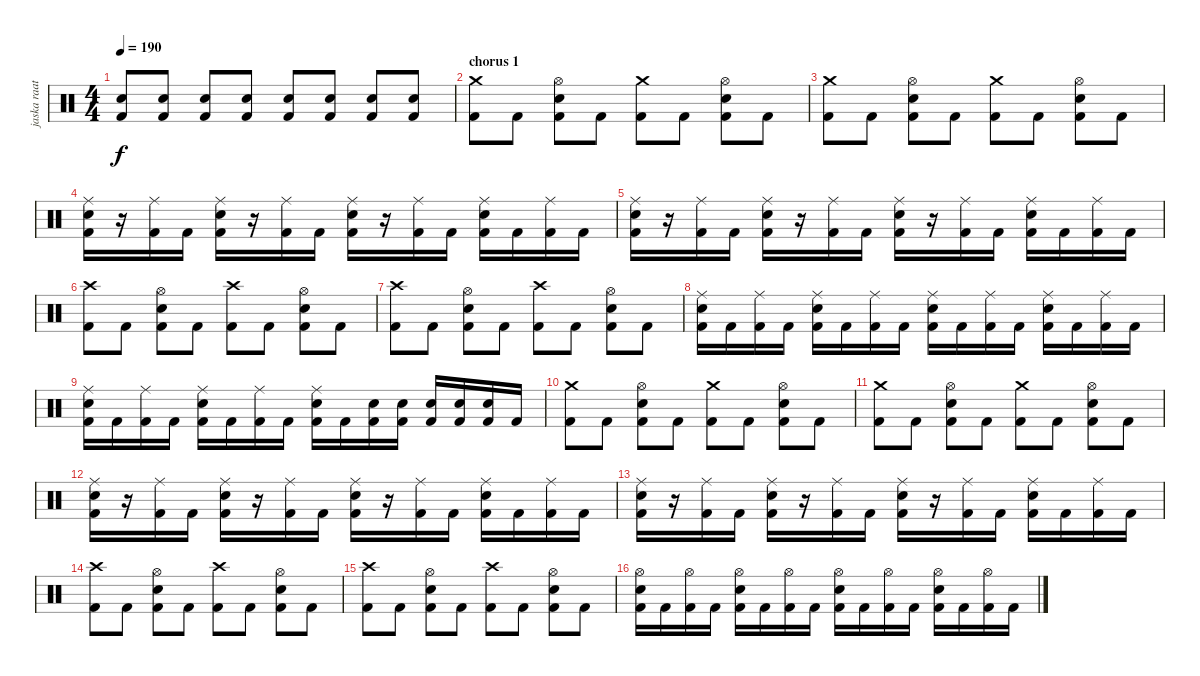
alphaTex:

\track ("jaska raatikainen" "jaska raat") {instrument percussion}
\staff {score}
\articulation defaults
\ts (4 4)
\tempo 190
\clef neutral
\ks c
("Snare (hit) 2" "Kick (hit) 2").8{dy f} ("Snare (hit) 2" "Kick (hit) 2").8 ("Snare (hit) 2" "Kick (hit) 2").8 ("Snare (hit) 2" "Kick (hit) 2").8 ("Snare (hit) 2" "Kick (hit) 2").8 ("Snare (hit) 2" "Kick (hit) 2").8 ("Snare (hit) 2" "Kick (hit) 2").8 ("Snare (hit) 2" "Kick (hit) 2").8 |
\section ("" "chorus 1")
("Crash medium (hit)" "Kick (hit) 2").8 "Kick (hit) 2".8 ("Hi-Hat (open)" "Snare (hit) 2" "Kick (hit) 2").8 "Kick (hit) 2".8 ("Crash medium (hit)" "Kick (hit) 2").8 "Kick (hit) 2".8 ("Hi-Hat (open)" "Snare (hit) 2" "Kick (hit) 2").8 "Kick (hit) 2".8 |
("Crash medium (hit)" "Kick (hit) 2").8 "Kick (hit) 2".8 ("Hi-Hat (open)" "Snare (hit) 2" "Kick (hit) 2").8 "Kick (hit) 2".8 ("Crash medium (hit)" "Kick (hit) 2").8 "Kick (hit) 2".8 ("Hi-Hat (open)" "Snare (hit) 2" "Kick (hit) 2").8 "Kick (hit) 2".8 |
("Ride (middle)" "Snare (hit) 2" "Kick (hit) 2").16 r.16 ("Ride (middle)" "Kick (hit) 2").16 "Kick (hit) 2".16 ("Ride (middle)" "Snare (hit) 2" "Kick (hit) 2").16 r.16 ("Ride (middle)" "Kick (hit) 2").16 "Kick (hit) 2".16 ("Ride (middle)" "Snare (hit) 2" "Kick (hit) 2").16 r.16 ("Ride (middle)" "Kick (hit) 2").16 "Kick (hit) 2".16 ("Ride (middle)" "Snare (hit) 2" "Kick (hit) 2").16 "Kick (hit) 2".16 ("Ride (middle)" "Kick (hit) 2").16 "Kick (hit) 2".16 |
("Ride (middle)" "Snare (hit) 2" "Kick (hit) 2").16 r.16 ("Ride (middle)" "Kick (hit) 2").16 "Kick (hit) 2".16 ("Ride (middle)" "Snare (hit) 2" "Kick (hit) 2").16 r.16 ("Ride (middle)" "Kick (hit) 2").16 "Kick (hit) 2".16 ("Ride (middle)" "Snare (hit) 2" "Kick (hit) 2").16 r.16 ("Ride (middle)" "Kick (hit) 2").16 "Kick (hit) 2".16 ("Ride (middle)" "Snare (hit) 2" "Kick (hit) 2").16 "Kick (hit) 2".16 ("Ride (middle)" "Kick (hit) 2").16 "Kick (hit) 2".16 |
("Crash high (hit)" "Kick (hit) 2").8 "Kick (hit) 2".8 ("Hi-Hat (open)" "Snare (hit) 2" "Kick (hit) 2").8 "Kick (hit) 2".8 ("Crash high (hit)" "Kick (hit) 2").8 "Kick (hit) 2".8 ("Hi-Hat (open)" "Snare (hit) 2" "Kick (hit) 2").8 "Kick (hit) 2".8 |
("Crash high (hit)" "Kick (hit) 2").8 "Kick (hit) 2".8 ("Hi-Hat (open)" "Snare (hit) 2" "Kick (hit) 2").8 "Kick (hit) 2".8 ("Crash high (hit)" "Kick (hit) 2").8 "Kick (hit) 2".8 ("Hi-Hat (open)" "Snare (hit) 2" "Kick (hit) 2").8 "Kick (hit) 2".8 |
("Ride (middle)" "Snare (hit) 2" "Kick (hit) 2").16 "Kick (hit) 2".16 ("Ride (middle)" "Kick (hit) 2").16 "Kick (hit) 2".16 ("Ride (middle)" "Snare (hit) 2" "Kick (hit) 2").16 "Kick (hit) 2".16 ("Ride (middle)" "Kick (hit) 2").16 "Kick (hit) 2".16 ("Ride (middle)" "Snare (hit) 2" "Kick (hit) 2").16 "Kick (hit) 2".16 ("Ride (middle)" "Kick (hit) 2").16 "Kick (hit) 2".16 ("Ride (middle)" "Snare (hit) 2" "Kick (hit) 2").16 "Kick (hit) 2".16 ("Ride (middle)" "Kick (hit) 2").16 "Kick (hit) 2".16 |
("Ride (middle)" "Snare (hit) 2" "Kick (hit) 2").16 "Kick (hit) 2".16 ("Ride (middle)" "Kick (hit) 2").16 "Kick (hit) 2".16 ("Ride (middle)" "Snare (hit) 2" "Kick (hit) 2").16 "Kick (hit) 2".16 ("Ride (middle)" "Kick (hit) 2").16 "Kick (hit) 2".16 ("Ride (middle)" "Snare (hit) 2" "Kick (hit) 2").16 "Kick (hit) 2".16 ("Snare (hit) 2" "Kick (hit) 2").16 ("Snare (hit) 2" "Kick (hit) 2").16 ("Snare (hit) 2" "Kick (hit) 2").16 ("Snare (hit) 2" "Kick (hit) 2").16 ("Snare (hit) 2" "Kick (hit) 2").16 "Kick (hit) 2".16 |
("Crash medium (hit)" "Kick (hit) 2").8 "Kick (hit) 2".8 ("Hi-Hat (open)" "Snare (hit) 2" "Kick (hit) 2").8 "Kick (hit) 2".8 ("Crash medium (hit)" "Kick (hit) 2").8 "Kick (hit) 2".8 ("Hi-Hat (open)" "Snare (hit) 2" "Kick (hit) 2").8 "Kick (hit) 2".8 |
("Crash medium (hit)" "Kick (hit) 2").8 "Kick (hit) 2".8 ("Hi-Hat (open)" "Snare (hit) 2" "Kick (hit) 2").8 "Kick (hit) 2".8 ("Crash medium (hit)" "Kick (hit) 2").8 "Kick (hit) 2".8 ("Hi-Hat (open)" "Snare (hit) 2" "Kick (hit) 2").8 "Kick (hit) 2".8 |
("Ride (middle)" "Snare (hit) 2" "Kick (hit) 2").16 r.16 ("Ride (middle)" "Kick (hit) 2").16 "Kick (hit) 2".16 ("Ride (middle)" "Snare (hit) 2" "Kick (hit) 2").16 r.16 ("Ride (middle)" "Kick (hit) 2").16 "Kick (hit) 2".16 ("Ride (middle)" "Snare (hit) 2" "Kick (hit) 2").16 r.16 ("Ride (middle)" "Kick (hit) 2").16 "Kick (hit) 2".16 ("Ride (middle)" "Snare (hit) 2" "Kick (hit) 2").16 "Kick (hit) 2".16 ("Ride (middle)" "Kick (hit) 2").16 "Kick (hit) 2".16 |
("Ride (middle)" "Snare (hit) 2" "Kick (hit) 2").16 r.16 ("Ride (middle)" "Kick (hit) 2").16 "Kick (hit) 2".16 ("Ride (middle)" "Snare (hit) 2" "Kick (hit) 2").16 r.16 ("Ride (middle)" "Kick (hit) 2").16 "Kick (hit) 2".16 ("Ride (middle)" "Snare (hit) 2" "Kick (hit) 2").16 r.16 ("Ride (middle)" "Kick (hit) 2").16 "Kick (hit) 2".16 ("Ride (middle)" "Snare (hit) 2" "Kick (hit) 2").16 "Kick (hit) 2".16 ("Ride (middle)" "Kick (hit) 2").16 "Kick (hit) 2".16 |
("Crash high (hit)" "Kick (hit) 2").8 "Kick (hit) 2".8 ("Hi-Hat (open)" "Snare (hit) 2" "Kick (hit) 2").8 "Kick (hit) 2".8 ("Crash high (hit)" "Kick (hit) 2").8 "Kick (hit) 2".8 ("Hi-Hat (open)" "Snare (hit) 2" "Kick (hit) 2").8 "Kick (hit) 2".8 |
("Crash high (hit)" "Kick (hit) 2").8 "Kick (hit) 2".8 ("Hi-Hat (open)" "Snare (hit) 2" "Kick (hit) 2").8 "Kick (hit) 2".8 ("Crash high (hit)" "Kick (hit) 2").8 "Kick (hit) 2".8 ("Hi-Hat (open)" "Snare (hit) 2" "Kick (hit) 2").8 "Kick (hit) 2".8 |
("Hi-Hat (open)" "Snare (hit) 2" "Kick (hit) 2").16 "Kick (hit) 2".16 ("Hi-Hat (open)" "Kick (hit) 2").16 "Kick (hit) 2".16 ("Hi-Hat (open)" "Snare (hit) 2" "Kick (hit) 2").16 "Kick (hit) 2".16 ("Hi-Hat (open)" "Kick (hit) 2").16 "Kick (hit) 2".16 ("Hi-Hat (open)" "Snare (hit) 2" "Kick (hit) 2").16 "Kick (hit) 2".16 ("Hi-Hat (open)" "Kick (hit) 2").16 "Kick (hit) 2".16 ("Hi-Hat (open)" "Snare (hit) 2" "Kick (hit) 2").16 "Kick (hit) 2".16 ("Hi-Hat (open)" "Kick (hit) 2").16 "Kick (hit) 2".16
